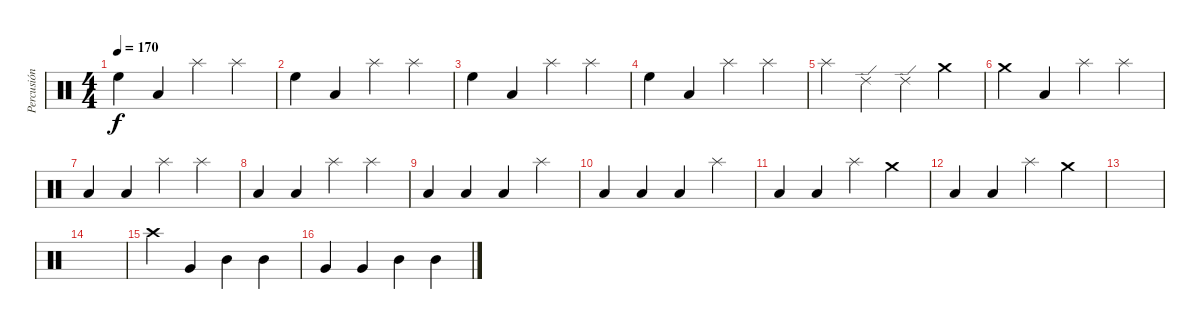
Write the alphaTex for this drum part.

\track ("Percusión" "Percusión") {instrument percussion}
\staff {score}
\articulation defaults
\ts (4 4)
\tempo 170
\clef neutral
\ks c "High Floor Tom (hit)".4{dy f} "Low Tom (hit)".4 "Splash (hit)".4 "Splash (hit)".4
|
"High Floor Tom (hit)".4 "Low Tom (hit)".4 "Splash (hit)".4 "Splash (hit)".4 |
"High Floor Tom (hit)".4 "Low Tom (hit)".4 "Splash (hit)".4 "Splash (hit)".4 |
"High Floor Tom (hit)".4 "Low Tom (hit)".4 "Splash (hit)".4 "Splash (hit)".4 |
"Splash (hit)".4 "Ride (edge) 2".4 "Ride (edge) 2".4 "Crash medium (hit)".4 |
"Crash medium (hit)".4 "Low Tom (hit)".4 "Splash (hit)".4 "Splash (hit)".4 |
"Low Tom (hit)".4 "Low Tom (hit)".4 "Splash (hit)".4 "Splash (hit)".4 |
"Low Tom (hit)".4 "Low Tom (hit)".4 "Splash (hit)".4 "Splash (hit)".4 |
"Low Tom (hit)".4 "Low Tom (hit)".4 "Low Tom (hit)".4 "Splash (hit)".4 |
"Low Tom (hit)".4 "Low Tom (hit)".4 "Low Tom (hit)".4 "Splash (hit)".4 |
"Low Tom (hit)".4 "Low Tom (hit)".4 "Splash (hit)".4 "Crash medium (hit)".4 |
"Low Tom (hit)".4 "Low Tom (hit)".4 "Splash (hit)".4 "Crash medium (hit)".4 |
|
|
"Crash high (hit)".4 "Very Low Tom (hit)".4 "Mid Tom (hit)".4 "Mid Tom (hit)".4 |
"Very Low Tom (hit)".4 "Very Low Tom (hit)".4 "Mid Tom (hit)".4 "Mid Tom (hit)".4
